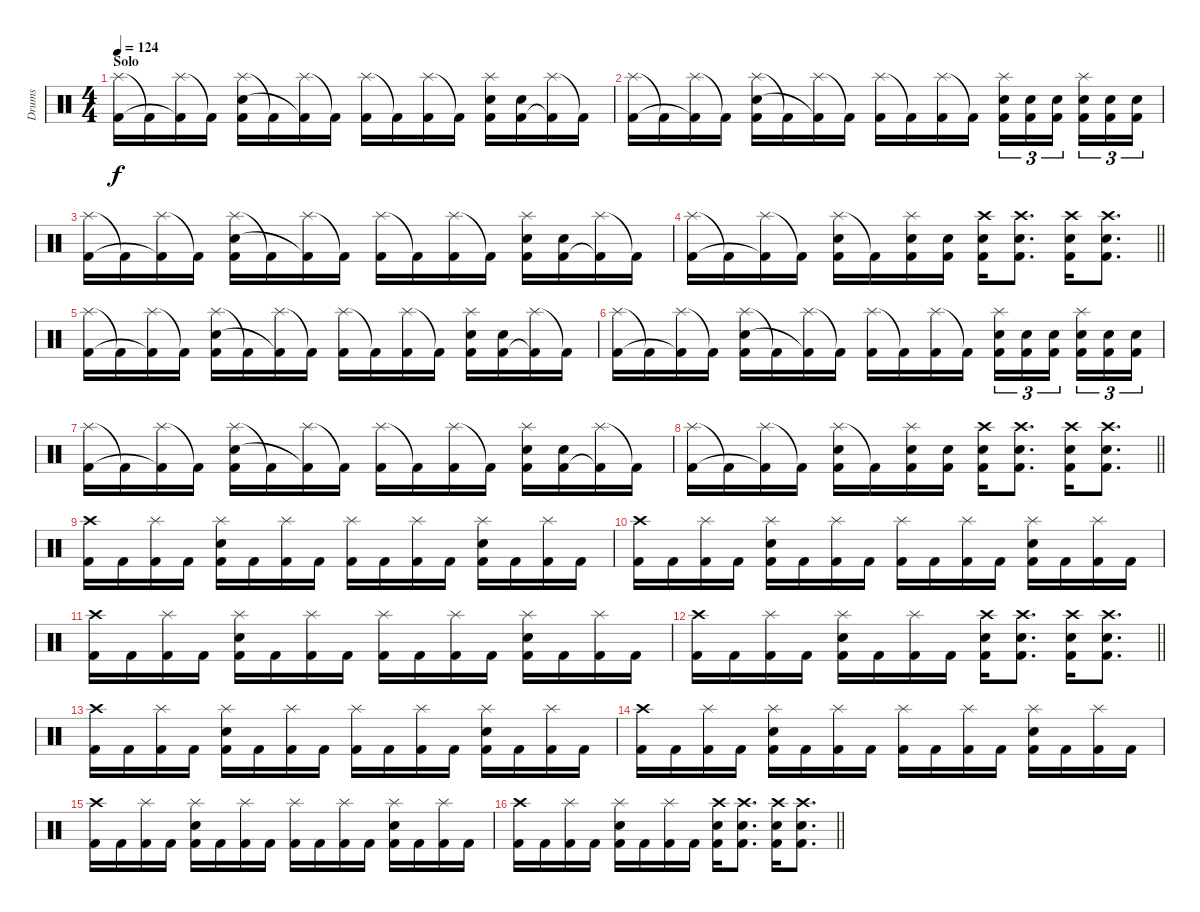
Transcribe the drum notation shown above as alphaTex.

\track ("Drums" "Drums") {instrument percussion}
\staff {score}
\articulation defaults
\ts (4 4)
\section ("" "Solo")
\tempo 124
\clef neutral
\ks c
("Splash (hit)" "Kick (hit) 2").16{dy f} "Kick (hit) 2"{t}.16 ("Splash (hit)" "Kick (hit) 2"{t}).16 "Kick (hit) 2"{t}.16 ("Splash (hit)" "Electric Snare (hit)" "Kick (hit) 2").16 "Kick (hit) 2"{t}.16 ("Splash (hit)" "Kick (hit) 2"{t}).16 "Kick (hit) 2"{t}.16 ("Splash (hit)" "Kick (hit) 2").16 "Kick (hit) 2"{t}.16 ("Splash (hit)" "Kick (hit) 2").16 "Kick (hit) 2"{t}.16 ("Splash (hit)" "Electric Snare (hit)" "Kick (hit) 2").16 ("Electric Snare (hit)" "Kick (hit) 2").16 ("Splash (hit)" "Kick (hit) 2"{t}).16 "Kick (hit) 2"{t}.16 |
("Splash (hit)" "Kick (hit) 2").16 "Kick (hit) 2"{t}.16 ("Splash (hit)" "Kick (hit) 2"{t}).16 "Kick (hit) 2"{t}.16 ("Splash (hit)" "Electric Snare (hit)" "Kick (hit) 2").16 "Kick (hit) 2"{t}.16 ("Splash (hit)" "Kick (hit) 2"{t}).16 "Kick (hit) 2"{t}.16 ("Splash (hit)" "Kick (hit) 2").16 "Kick (hit) 2"{t}.16 ("Splash (hit)" "Kick (hit) 2").16 "Kick (hit) 2"{t}.16 ("Splash (hit)" "Electric Snare (hit)" "Kick (hit) 2").16{tu (3 2)} ("Electric Snare (hit)" "Kick (hit) 2").16{tu (3 2)} ("Electric Snare (hit)" "Kick (hit) 2").16{tu (3 2) beam splitsecondary} ("Splash (hit)" "Electric Snare (hit)" "Kick (hit) 2").16{tu (3 2)} ("Electric Snare (hit)" "Kick (hit) 2").16{tu (3 2)} ("Electric Snare (hit)" "Kick (hit) 2").16{tu (3 2)} |
("Splash (hit)" "Kick (hit) 2").16 "Kick (hit) 2"{t}.16 ("Splash (hit)" "Kick (hit) 2"{t}).16 "Kick (hit) 2"{t}.16 ("Splash (hit)" "Electric Snare (hit)" "Kick (hit) 2").16 "Kick (hit) 2"{t}.16 ("Splash (hit)" "Kick (hit) 2"{t}).16 "Kick (hit) 2"{t}.16 ("Splash (hit)" "Kick (hit) 2").16 "Kick (hit) 2"{t}.16 ("Splash (hit)" "Kick (hit) 2").16 "Kick (hit) 2"{t}.16 ("Splash (hit)" "Electric Snare (hit)" "Kick (hit) 2").16 ("Electric Snare (hit)" "Kick (hit) 2").16 ("Splash (hit)" "Kick (hit) 2"{t}).16 "Kick (hit) 2"{t}.16 |
\barLineRight lightlight
("Splash (hit)" "Kick (hit) 2").16 "Kick (hit) 2"{t}.16 ("Splash (hit)" "Kick (hit) 2"{t}).16 "Kick (hit) 2"{t}.16 ("Splash (hit)" "Electric Snare (hit)" "Kick (hit) 2").16 "Kick (hit) 2"{t}.16 ("Splash (hit)" "Electric Snare (hit)" "Kick (hit) 2").16 ("Electric Snare (hit)" "Kick (hit) 2").16 ("Crash high (hit)" "Electric Snare (hit)" "Kick (hit) 2").16 ("Crash high (hit)" "Electric Snare (hit)" "Kick (hit) 2").8{d} ("Crash high (hit)" "Electric Snare (hit)" "Kick (hit) 2").16 ("Crash high (hit)" "Electric Snare (hit)" "Kick (hit) 2").8{d} |
("Splash (hit)" "Kick (hit) 2").16 "Kick (hit) 2"{t}.16 ("Splash (hit)" "Kick (hit) 2"{t}).16 "Kick (hit) 2"{t}.16 ("Splash (hit)" "Electric Snare (hit)" "Kick (hit) 2").16 "Kick (hit) 2"{t}.16 ("Splash (hit)" "Kick (hit) 2"{t}).16 "Kick (hit) 2"{t}.16 ("Splash (hit)" "Kick (hit) 2").16 "Kick (hit) 2"{t}.16 ("Splash (hit)" "Kick (hit) 2").16 "Kick (hit) 2"{t}.16 ("Splash (hit)" "Electric Snare (hit)" "Kick (hit) 2").16 ("Electric Snare (hit)" "Kick (hit) 2").16 ("Splash (hit)" "Kick (hit) 2"{t}).16 "Kick (hit) 2"{t}.16 |
("Splash (hit)" "Kick (hit) 2").16 "Kick (hit) 2"{t}.16 ("Splash (hit)" "Kick (hit) 2"{t}).16 "Kick (hit) 2"{t}.16 ("Splash (hit)" "Electric Snare (hit)" "Kick (hit) 2").16 "Kick (hit) 2"{t}.16 ("Splash (hit)" "Kick (hit) 2"{t}).16 "Kick (hit) 2"{t}.16 ("Splash (hit)" "Kick (hit) 2").16 "Kick (hit) 2"{t}.16 ("Splash (hit)" "Kick (hit) 2").16 "Kick (hit) 2"{t}.16 ("Splash (hit)" "Electric Snare (hit)" "Kick (hit) 2").16{tu (3 2)} ("Electric Snare (hit)" "Kick (hit) 2").16{tu (3 2)} ("Electric Snare (hit)" "Kick (hit) 2").16{tu (3 2) beam splitsecondary} ("Splash (hit)" "Electric Snare (hit)" "Kick (hit) 2").16{tu (3 2)} ("Electric Snare (hit)" "Kick (hit) 2").16{tu (3 2)} ("Electric Snare (hit)" "Kick (hit) 2").16{tu (3 2)} |
("Splash (hit)" "Kick (hit) 2").16 "Kick (hit) 2"{t}.16 ("Splash (hit)" "Kick (hit) 2"{t}).16 "Kick (hit) 2"{t}.16 ("Splash (hit)" "Electric Snare (hit)" "Kick (hit) 2").16 "Kick (hit) 2"{t}.16 ("Splash (hit)" "Kick (hit) 2"{t}).16 "Kick (hit) 2"{t}.16 ("Splash (hit)" "Kick (hit) 2").16 "Kick (hit) 2"{t}.16 ("Splash (hit)" "Kick (hit) 2").16 "Kick (hit) 2"{t}.16 ("Splash (hit)" "Electric Snare (hit)" "Kick (hit) 2").16 ("Electric Snare (hit)" "Kick (hit) 2").16 ("Splash (hit)" "Kick (hit) 2"{t}).16 "Kick (hit) 2"{t}.16 |
\barLineRight lightlight
("Splash (hit)" "Kick (hit) 2").16 "Kick (hit) 2"{t}.16 ("Splash (hit)" "Kick (hit) 2"{t}).16 "Kick (hit) 2"{t}.16 ("Splash (hit)" "Electric Snare (hit)" "Kick (hit) 2").16 "Kick (hit) 2"{t}.16 ("Splash (hit)" "Electric Snare (hit)" "Kick (hit) 2").16 ("Electric Snare (hit)" "Kick (hit) 2").16 ("Crash high (hit)" "Electric Snare (hit)" "Kick (hit) 2").16 ("Crash high (hit)" "Electric Snare (hit)" "Kick (hit) 2").8{d} ("Crash high (hit)" "Electric Snare (hit)" "Kick (hit) 2").16 ("Crash high (hit)" "Electric Snare (hit)" "Kick (hit) 2").8{d} |
("Crash high (hit)" "Kick (hit) 2").16 "Kick (hit) 2".16 ("Splash (hit)" "Kick (hit) 2").16 "Kick (hit) 2".16 ("Splash (hit)" "Electric Snare (hit)" "Kick (hit) 2").16 "Kick (hit) 2".16 ("Splash (hit)" "Kick (hit) 2").16 "Kick (hit) 2".16 ("Splash (hit)" "Kick (hit) 2").16 "Kick (hit) 2".16 ("Splash (hit)" "Kick (hit) 2").16 "Kick (hit) 2".16 ("Splash (hit)" "Electric Snare (hit)" "Kick (hit) 2").16 "Kick (hit) 2".16 ("Splash (hit)" "Kick (hit) 2").16 "Kick (hit) 2".16 |
("Crash high (hit)" "Kick (hit) 2").16 "Kick (hit) 2".16 ("Splash (hit)" "Kick (hit) 2").16 "Kick (hit) 2".16 ("Splash (hit)" "Electric Snare (hit)" "Kick (hit) 2").16 "Kick (hit) 2".16 ("Splash (hit)" "Kick (hit) 2").16 "Kick (hit) 2".16 ("Splash (hit)" "Kick (hit) 2").16 "Kick (hit) 2".16 ("Splash (hit)" "Kick (hit) 2").16 "Kick (hit) 2".16 ("Splash (hit)" "Electric Snare (hit)" "Kick (hit) 2").16 "Kick (hit) 2".16 ("Splash (hit)" "Kick (hit) 2").16 "Kick (hit) 2".16 |
("Crash high (hit)" "Kick (hit) 2").16 "Kick (hit) 2".16 ("Splash (hit)" "Kick (hit) 2").16 "Kick (hit) 2".16 ("Splash (hit)" "Electric Snare (hit)" "Kick (hit) 2").16 "Kick (hit) 2".16 ("Splash (hit)" "Kick (hit) 2").16 "Kick (hit) 2".16 ("Splash (hit)" "Kick (hit) 2").16 "Kick (hit) 2".16 ("Splash (hit)" "Kick (hit) 2").16 "Kick (hit) 2".16 ("Splash (hit)" "Electric Snare (hit)" "Kick (hit) 2").16 "Kick (hit) 2".16 ("Splash (hit)" "Kick (hit) 2").16 "Kick (hit) 2".16 |
\barLineRight lightlight
("Crash high (hit)" "Kick (hit) 2").16 "Kick (hit) 2".16 ("Splash (hit)" "Kick (hit) 2").16 "Kick (hit) 2".16 ("Splash (hit)" "Electric Snare (hit)" "Kick (hit) 2").16 "Kick (hit) 2".16 ("Splash (hit)" "Kick (hit) 2").16 "Kick (hit) 2".16 ("Crash high (hit)" "Electric Snare (hit)" "Kick (hit) 2").16 ("Crash high (hit)" "Electric Snare (hit)" "Kick (hit) 2").8{d} ("Crash high (hit)" "Electric Snare (hit)" "Kick (hit) 2").16 ("Crash high (hit)" "Electric Snare (hit)" "Kick (hit) 2").8{d} |
("Crash high (hit)" "Kick (hit) 2").16 "Kick (hit) 2".16 ("Splash (hit)" "Kick (hit) 2").16 "Kick (hit) 2".16 ("Splash (hit)" "Electric Snare (hit)" "Kick (hit) 2").16 "Kick (hit) 2".16 ("Splash (hit)" "Kick (hit) 2").16 "Kick (hit) 2".16 ("Splash (hit)" "Kick (hit) 2").16 "Kick (hit) 2".16 ("Splash (hit)" "Kick (hit) 2").16 "Kick (hit) 2".16 ("Splash (hit)" "Electric Snare (hit)" "Kick (hit) 2").16 "Kick (hit) 2".16 ("Splash (hit)" "Kick (hit) 2").16 "Kick (hit) 2".16 |
("Crash high (hit)" "Kick (hit) 2").16 "Kick (hit) 2".16 ("Splash (hit)" "Kick (hit) 2").16 "Kick (hit) 2".16 ("Splash (hit)" "Electric Snare (hit)" "Kick (hit) 2").16 "Kick (hit) 2".16 ("Splash (hit)" "Kick (hit) 2").16 "Kick (hit) 2".16 ("Splash (hit)" "Kick (hit) 2").16 "Kick (hit) 2".16 ("Splash (hit)" "Kick (hit) 2").16 "Kick (hit) 2".16 ("Splash (hit)" "Electric Snare (hit)" "Kick (hit) 2").16 "Kick (hit) 2".16 ("Splash (hit)" "Kick (hit) 2").16 "Kick (hit) 2".16 |
("Crash high (hit)" "Kick (hit) 2").16 "Kick (hit) 2".16 ("Splash (hit)" "Kick (hit) 2").16 "Kick (hit) 2".16 ("Splash (hit)" "Electric Snare (hit)" "Kick (hit) 2").16 "Kick (hit) 2".16 ("Splash (hit)" "Kick (hit) 2").16 "Kick (hit) 2".16 ("Splash (hit)" "Kick (hit) 2").16 "Kick (hit) 2".16 ("Splash (hit)" "Kick (hit) 2").16 "Kick (hit) 2".16 ("Splash (hit)" "Electric Snare (hit)" "Kick (hit) 2").16 "Kick (hit) 2".16 ("Splash (hit)" "Kick (hit) 2").16 "Kick (hit) 2".16 |
\barLineRight lightlight
("Crash high (hit)" "Kick (hit) 2").16 "Kick (hit) 2".16 ("Splash (hit)" "Kick (hit) 2").16 "Kick (hit) 2".16 ("Splash (hit)" "Electric Snare (hit)" "Kick (hit) 2").16 "Kick (hit) 2".16 ("Splash (hit)" "Kick (hit) 2").16 "Kick (hit) 2".16 ("Crash high (hit)" "Electric Snare (hit)" "Kick (hit) 2").16 ("Crash high (hit)" "Electric Snare (hit)" "Kick (hit) 2").8{d} ("Crash high (hit)" "Electric Snare (hit)" "Kick (hit) 2").16 ("Crash high (hit)" "Electric Snare (hit)" "Kick (hit) 2").8{d}
